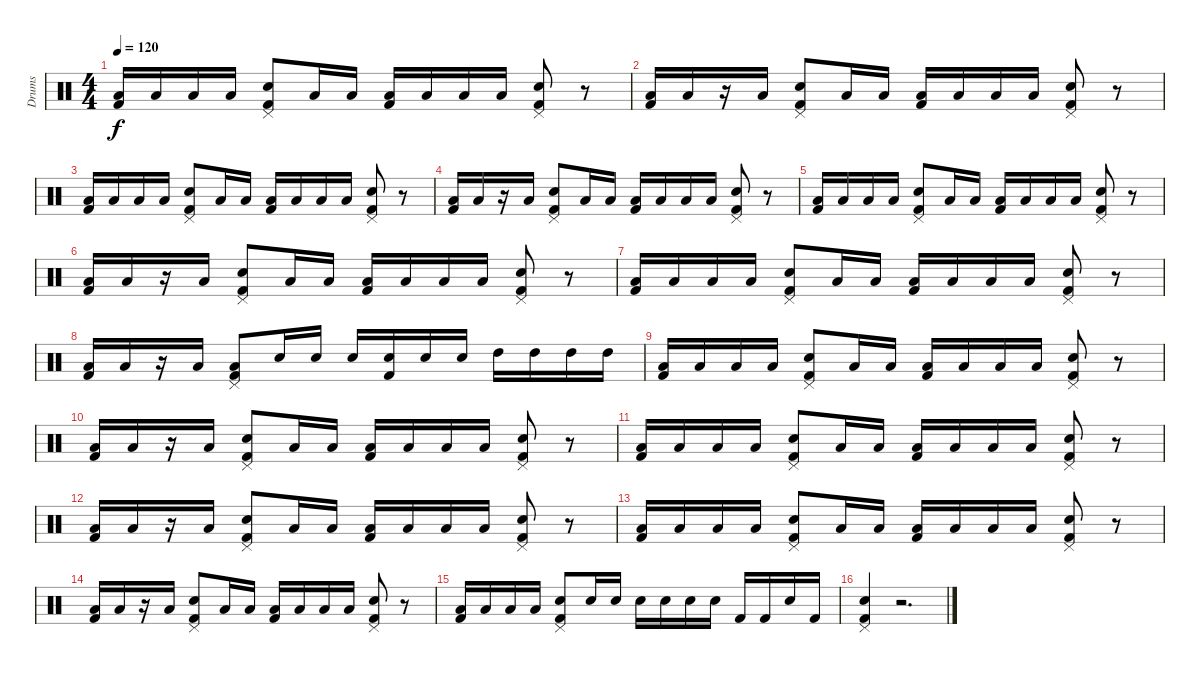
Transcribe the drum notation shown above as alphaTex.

\track ("Drums" "Drums") {instrument percussion}
\staff {score}
\articulation defaults
\ts (4 4)
\tempo 120
\clef neutral
\ks c
("Low Tom (hit)" "Kick (hit) 2").16{dy f} "Low Tom (hit)".16 "Low Tom (hit)".16 "Low Tom (hit)".16 ("Pedal Hi-Hat (hit)" "Electric Snare (hit)" "Kick (hit) 2").8 "Low Tom (hit)".16 "Low Tom (hit)".16 ("Low Tom (hit)" "Kick (hit) 2").16 "Low Tom (hit)".16 "Low Tom (hit)".16 "Low Tom (hit)".16 ("Pedal Hi-Hat (hit)" "Electric Snare (hit)" "Kick (hit) 2").8 r.8 |
("Low Tom (hit)" "Kick (hit) 2").16 "Low Tom (hit)".16 r.16 "Low Tom (hit)".16 ("Pedal Hi-Hat (hit)" "Electric Snare (hit)" "Kick (hit) 2").8 "Low Tom (hit)".16 "Low Tom (hit)".16 ("Low Tom (hit)" "Kick (hit) 2").16 "Low Tom (hit)".16 "Low Tom (hit)".16 "Low Tom (hit)".16 ("Pedal Hi-Hat (hit)" "Electric Snare (hit)" "Kick (hit) 2").8 r.8 |
("Low Tom (hit)" "Kick (hit) 2").16 "Low Tom (hit)".16 "Low Tom (hit)".16 "Low Tom (hit)".16 ("Pedal Hi-Hat (hit)" "Electric Snare (hit)" "Kick (hit) 2").8 "Low Tom (hit)".16 "Low Tom (hit)".16 ("Low Tom (hit)" "Kick (hit) 2").16 "Low Tom (hit)".16 "Low Tom (hit)".16 "Low Tom (hit)".16 ("Pedal Hi-Hat (hit)" "Electric Snare (hit)" "Kick (hit) 2").8 r.8 |
("Low Tom (hit)" "Kick (hit) 2").16 "Low Tom (hit)".16 r.16 "Low Tom (hit)".16 ("Pedal Hi-Hat (hit)" "Electric Snare (hit)" "Kick (hit) 2").8 "Low Tom (hit)".16 "Low Tom (hit)".16 ("Low Tom (hit)" "Kick (hit) 2").16 "Low Tom (hit)".16 "Low Tom (hit)".16 "Low Tom (hit)".16 ("Pedal Hi-Hat (hit)" "Electric Snare (hit)" "Kick (hit) 2").8 r.8 |
("Low Tom (hit)" "Kick (hit) 2").16 "Low Tom (hit)".16 "Low Tom (hit)".16 "Low Tom (hit)".16 ("Pedal Hi-Hat (hit)" "Electric Snare (hit)" "Kick (hit) 2").8 "Low Tom (hit)".16 "Low Tom (hit)".16 ("Low Tom (hit)" "Kick (hit) 2").16 "Low Tom (hit)".16 "Low Tom (hit)".16 "Low Tom (hit)".16 ("Pedal Hi-Hat (hit)" "Electric Snare (hit)" "Kick (hit) 2").8 r.8 |
("Low Tom (hit)" "Kick (hit) 2").16 "Low Tom (hit)".16 r.16 "Low Tom (hit)".16 ("Pedal Hi-Hat (hit)" "Electric Snare (hit)" "Kick (hit) 2").8 "Low Tom (hit)".16 "Low Tom (hit)".16 ("Low Tom (hit)" "Kick (hit) 2").16 "Low Tom (hit)".16 "Low Tom (hit)".16 "Low Tom (hit)".16 ("Pedal Hi-Hat (hit)" "Electric Snare (hit)" "Kick (hit) 2").8 r.8 |
("Low Tom (hit)" "Kick (hit) 2").16 "Low Tom (hit)".16 "Low Tom (hit)".16 "Low Tom (hit)".16 ("Pedal Hi-Hat (hit)" "Electric Snare (hit)" "Kick (hit) 2").8 "Low Tom (hit)".16 "Low Tom (hit)".16 ("Low Tom (hit)" "Kick (hit) 2").16 "Low Tom (hit)".16 "Low Tom (hit)".16 "Low Tom (hit)".16 ("Pedal Hi-Hat (hit)" "Electric Snare (hit)" "Kick (hit) 2").8 r.8 |
("Low Tom (hit)" "Kick (hit) 2").16 "Low Tom (hit)".16 r.16 "Low Tom (hit)".16 ("Pedal Hi-Hat (hit)" "Low Tom (hit)" "Kick (hit) 2").8 "Electric Snare (hit)".16 "Electric Snare (hit)".16 "Electric Snare (hit)".16 ("Electric Snare (hit)" "Kick (hit) 2").16 "Electric Snare (hit)".16 "Electric Snare (hit)".16 "High Tom (hit)".16 "High Tom (hit)".16 "High Tom (hit)".16 "High Tom (hit)".16 |
("Low Tom (hit)" "Kick (hit) 2").16 "Low Tom (hit)".16 "Low Tom (hit)".16 "Low Tom (hit)".16 ("Pedal Hi-Hat (hit)" "Electric Snare (hit)" "Kick (hit) 2").8 "Low Tom (hit)".16 "Low Tom (hit)".16 ("Low Tom (hit)" "Kick (hit) 2").16 "Low Tom (hit)".16 "Low Tom (hit)".16 "Low Tom (hit)".16 ("Pedal Hi-Hat (hit)" "Electric Snare (hit)" "Kick (hit) 2").8 r.8 |
("Low Tom (hit)" "Kick (hit) 2").16 "Low Tom (hit)".16 r.16 "Low Tom (hit)".16 ("Pedal Hi-Hat (hit)" "Electric Snare (hit)" "Kick (hit) 2").8 "Low Tom (hit)".16 "Low Tom (hit)".16 ("Low Tom (hit)" "Kick (hit) 2").16 "Low Tom (hit)".16 "Low Tom (hit)".16 "Low Tom (hit)".16 ("Pedal Hi-Hat (hit)" "Electric Snare (hit)" "Kick (hit) 2").8 r.8 |
("Low Tom (hit)" "Kick (hit) 2").16 "Low Tom (hit)".16 "Low Tom (hit)".16 "Low Tom (hit)".16 ("Pedal Hi-Hat (hit)" "Electric Snare (hit)" "Kick (hit) 2").8 "Low Tom (hit)".16 "Low Tom (hit)".16 ("Low Tom (hit)" "Kick (hit) 2").16 "Low Tom (hit)".16 "Low Tom (hit)".16 "Low Tom (hit)".16 ("Pedal Hi-Hat (hit)" "Electric Snare (hit)" "Kick (hit) 2").8 r.8 |
("Low Tom (hit)" "Kick (hit) 2").16 "Low Tom (hit)".16 r.16 "Low Tom (hit)".16 ("Pedal Hi-Hat (hit)" "Electric Snare (hit)" "Kick (hit) 2").8 "Low Tom (hit)".16 "Low Tom (hit)".16 ("Low Tom (hit)" "Kick (hit) 2").16 "Low Tom (hit)".16 "Low Tom (hit)".16 "Low Tom (hit)".16 ("Pedal Hi-Hat (hit)" "Electric Snare (hit)" "Kick (hit) 2").8 r.8 |
("Low Tom (hit)" "Kick (hit) 2").16 "Low Tom (hit)".16 "Low Tom (hit)".16 "Low Tom (hit)".16 ("Pedal Hi-Hat (hit)" "Electric Snare (hit)" "Kick (hit) 2").8 "Low Tom (hit)".16 "Low Tom (hit)".16 ("Low Tom (hit)" "Kick (hit) 2").16 "Low Tom (hit)".16 "Low Tom (hit)".16 "Low Tom (hit)".16 ("Pedal Hi-Hat (hit)" "Electric Snare (hit)" "Kick (hit) 2").8 r.8 |
("Low Tom (hit)" "Kick (hit) 2").16 "Low Tom (hit)".16 r.16 "Low Tom (hit)".16 ("Pedal Hi-Hat (hit)" "Electric Snare (hit)" "Kick (hit) 2").8 "Low Tom (hit)".16 "Low Tom (hit)".16 ("Low Tom (hit)" "Kick (hit) 2").16 "Low Tom (hit)".16 "Low Tom (hit)".16 "Low Tom (hit)".16 ("Pedal Hi-Hat (hit)" "Electric Snare (hit)" "Kick (hit) 2").8 r.8 |
("Low Tom (hit)" "Kick (hit) 2").16 "Low Tom (hit)".16 "Low Tom (hit)".16 "Low Tom (hit)".16 ("Pedal Hi-Hat (hit)" "Electric Snare (hit)" "Kick (hit) 2").8 "Electric Snare (hit)".16 "Electric Snare (hit)".16 "Electric Snare (hit)".16 "Electric Snare (hit)".16 "Electric Snare (hit)".16 "Electric Snare (hit)".16 "Kick (hit) 2".16 "Kick (hit) 2".16 "Electric Snare (hit)".16 "Kick (hit) 2".16 |
("Pedal Hi-Hat (hit)" "Electric Snare (hit)" "Kick (hit) 2").4 r.2{d}
